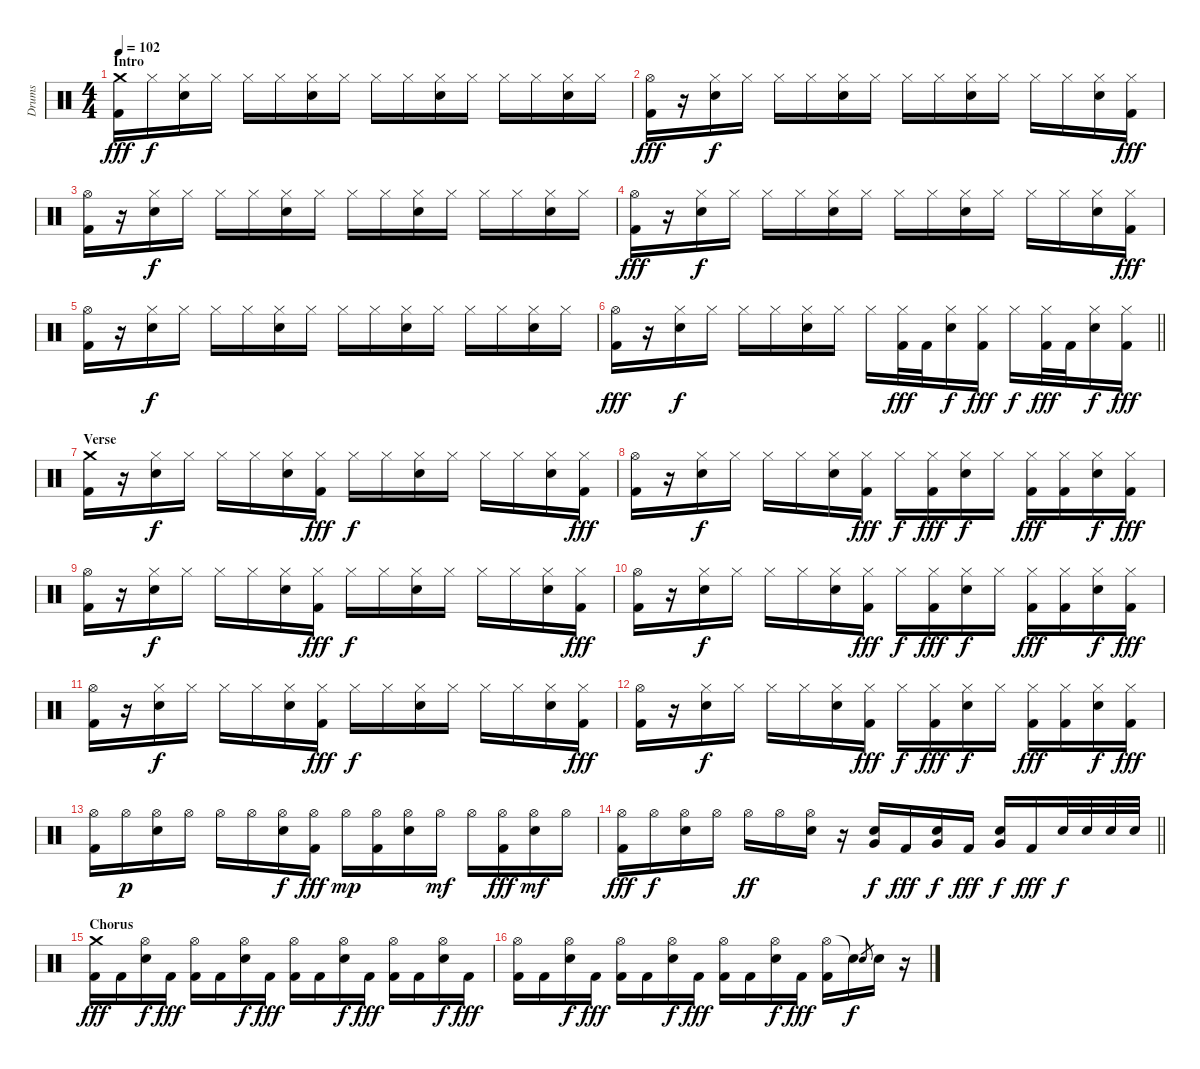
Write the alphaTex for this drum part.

\track ("Drums" "Drums") {instrument percussion}
\staff {score}
\articulation defaults
\ts (4 4)
\section ("" "Intro")
\tempo 102
\clef neutral
\ks c
("Crash medium (hit)" "Kick (hit) 2").16{dy fff} "Hi-Hat (closed)".16{dy f} ("Hi-Hat (closed)" "Snare (hit) 2").16 "Hi-Hat (closed)".16 "Hi-Hat (closed)".16 "Hi-Hat (closed)".16 ("Hi-Hat (closed)" "Snare (hit) 2").16 "Hi-Hat (closed)".16 "Hi-Hat (closed)".16 "Hi-Hat (closed)".16 ("Hi-Hat (closed)" "Snare (hit) 2").16 "Hi-Hat (closed)".16 "Hi-Hat (closed)".16 "Hi-Hat (closed)".16 ("Hi-Hat (closed)" "Snare (hit) 2").16 "Hi-Hat (closed)".16 |
("Hi-Hat (open)" "Kick (hit) 2").16{dy fff} r.16 ("Hi-Hat (closed)" "Snare (hit) 2").16{dy f} "Hi-Hat (closed)".16 "Hi-Hat (closed)".16 "Hi-Hat (closed)".16 ("Hi-Hat (closed)" "Snare (hit) 2").16 "Hi-Hat (closed)".16 "Hi-Hat (closed)".16 "Hi-Hat (closed)".16 ("Hi-Hat (closed)" "Snare (hit) 2").16 "Hi-Hat (closed)".16 "Hi-Hat (closed)".16 "Hi-Hat (closed)".16 ("Hi-Hat (closed)" "Snare (hit) 2").16 ("Hi-Hat (closed)" "Kick (hit) 2").16{dy fff} |
("Hi-Hat (open)" "Kick (hit) 2").16 r.16 ("Hi-Hat (closed)" "Snare (hit) 2").16{dy f} "Hi-Hat (closed)".16 "Hi-Hat (closed)".16 "Hi-Hat (closed)".16 ("Hi-Hat (closed)" "Snare (hit) 2").16 "Hi-Hat (closed)".16 "Hi-Hat (closed)".16 "Hi-Hat (closed)".16 ("Hi-Hat (closed)" "Snare (hit) 2").16 "Hi-Hat (closed)".16 "Hi-Hat (closed)".16 "Hi-Hat (closed)".16 ("Hi-Hat (closed)" "Snare (hit) 2").16 "Hi-Hat (closed)".16 |
("Hi-Hat (open)" "Kick (hit) 2").16{dy fff} r.16 ("Hi-Hat (closed)" "Snare (hit) 2").16{dy f} "Hi-Hat (closed)".16 "Hi-Hat (closed)".16 "Hi-Hat (closed)".16 ("Hi-Hat (closed)" "Snare (hit) 2").16 "Hi-Hat (closed)".16 "Hi-Hat (closed)".16 "Hi-Hat (closed)".16 ("Hi-Hat (closed)" "Snare (hit) 2").16 "Hi-Hat (closed)".16 "Hi-Hat (closed)".16 "Hi-Hat (closed)".16 ("Hi-Hat (closed)" "Snare (hit) 2").16 ("Hi-Hat (closed)" "Kick (hit) 2").16{dy fff} |
("Hi-Hat (open)" "Kick (hit) 2").16 r.16 ("Hi-Hat (closed)" "Snare (hit) 2").16{dy f} "Hi-Hat (closed)".16 "Hi-Hat (closed)".16 "Hi-Hat (closed)".16 ("Hi-Hat (closed)" "Snare (hit) 2").16 "Hi-Hat (closed)".16 "Hi-Hat (closed)".16 "Hi-Hat (closed)".16 ("Hi-Hat (closed)" "Snare (hit) 2").16 "Hi-Hat (closed)".16 "Hi-Hat (closed)".16 "Hi-Hat (closed)".16 ("Hi-Hat (closed)" "Snare (hit) 2").16 "Hi-Hat (closed)".16 |
\barLineRight lightlight
("Hi-Hat (open)" "Kick (hit) 2").16{dy fff} r.16 ("Hi-Hat (closed)" "Snare (hit) 2").16{dy f} "Hi-Hat (closed)".16 "Hi-Hat (closed)".16 "Hi-Hat (closed)".16 ("Hi-Hat (closed)" "Snare (hit) 2").16 "Hi-Hat (closed)".16 "Hi-Hat (closed)".16 ("Hi-Hat (closed)" "Kick (hit) 2").32{dy fff} "Kick (hit) 2".32 ("Hi-Hat (closed)" "Snare (hit) 2").16{dy f} ("Hi-Hat (closed)" "Kick (hit) 2").16{dy fff} "Hi-Hat (closed)".16{dy f} ("Hi-Hat (closed)" "Kick (hit) 2").32{dy fff} "Kick (hit) 2".32 ("Hi-Hat (closed)" "Snare (hit) 2").16{dy f} ("Hi-Hat (closed)" "Kick (hit) 2").16{dy fff} |
\section ("" "Verse")
("Crash medium (hit)" "Kick (hit) 2").16 r.16 ("Hi-Hat (closed)" "Snare (hit) 2").16{dy f} "Hi-Hat (closed)".16 "Hi-Hat (closed)".16 "Hi-Hat (closed)".16 ("Hi-Hat (closed)" "Snare (hit) 2").16 ("Hi-Hat (closed)" "Kick (hit) 2").16{dy fff} "Hi-Hat (closed)".16{dy f} "Hi-Hat (closed)".16 ("Hi-Hat (closed)" "Snare (hit) 2").16 "Hi-Hat (closed)".16 "Hi-Hat (closed)".16 "Hi-Hat (closed)".16 ("Hi-Hat (closed)" "Snare (hit) 2").16 ("Hi-Hat (closed)" "Kick (hit) 2").16{dy fff} |
("Hi-Hat (open)" "Kick (hit) 2").16 r.16 ("Hi-Hat (closed)" "Snare (hit) 2").16{dy f} "Hi-Hat (closed)".16 "Hi-Hat (closed)".16 "Hi-Hat (closed)".16 ("Hi-Hat (closed)" "Snare (hit) 2").16 ("Hi-Hat (closed)" "Kick (hit) 2").16{dy fff} "Hi-Hat (closed)".16{dy f} ("Hi-Hat (closed)" "Kick (hit) 2").16{dy fff} ("Hi-Hat (closed)" "Snare (hit) 2").16{dy f} "Hi-Hat (closed)".16 ("Hi-Hat (closed)" "Kick (hit) 2").16{dy fff} ("Hi-Hat (closed)" "Kick (hit) 2").16 ("Hi-Hat (closed)" "Snare (hit) 2").16{dy f} ("Hi-Hat (closed)" "Kick (hit) 2").16{dy fff} |
("Hi-Hat (open)" "Kick (hit) 2").16 r.16 ("Hi-Hat (closed)" "Snare (hit) 2").16{dy f} "Hi-Hat (closed)".16 "Hi-Hat (closed)".16 "Hi-Hat (closed)".16 ("Hi-Hat (closed)" "Snare (hit) 2").16 ("Hi-Hat (closed)" "Kick (hit) 2").16{dy fff} "Hi-Hat (closed)".16{dy f} "Hi-Hat (closed)".16 ("Hi-Hat (closed)" "Snare (hit) 2").16 "Hi-Hat (closed)".16 "Hi-Hat (closed)".16 "Hi-Hat (closed)".16 ("Hi-Hat (closed)" "Snare (hit) 2").16 ("Hi-Hat (closed)" "Kick (hit) 2").16{dy fff} |
("Hi-Hat (open)" "Kick (hit) 2").16 r.16 ("Hi-Hat (closed)" "Snare (hit) 2").16{dy f} "Hi-Hat (closed)".16 "Hi-Hat (closed)".16 "Hi-Hat (closed)".16 ("Hi-Hat (closed)" "Snare (hit) 2").16 ("Hi-Hat (closed)" "Kick (hit) 2").16{dy fff} "Hi-Hat (closed)".16{dy f} ("Hi-Hat (closed)" "Kick (hit) 2").16{dy fff} ("Hi-Hat (closed)" "Snare (hit) 2").16{dy f} "Hi-Hat (closed)".16 ("Hi-Hat (closed)" "Kick (hit) 2").16{dy fff} ("Hi-Hat (closed)" "Kick (hit) 2").16 ("Hi-Hat (closed)" "Snare (hit) 2").16{dy f} ("Hi-Hat (closed)" "Kick (hit) 2").16{dy fff} |
("Hi-Hat (open)" "Kick (hit) 2").16 r.16 ("Hi-Hat (closed)" "Snare (hit) 2").16{dy f} "Hi-Hat (closed)".16 "Hi-Hat (closed)".16 "Hi-Hat (closed)".16 ("Hi-Hat (closed)" "Snare (hit) 2").16 ("Hi-Hat (closed)" "Kick (hit) 2").16{dy fff} "Hi-Hat (closed)".16{dy f} "Hi-Hat (closed)".16 ("Hi-Hat (closed)" "Snare (hit) 2").16 "Hi-Hat (closed)".16 "Hi-Hat (closed)".16 "Hi-Hat (closed)".16 ("Hi-Hat (closed)" "Snare (hit) 2").16 ("Hi-Hat (closed)" "Kick (hit) 2").16{dy fff} |
("Hi-Hat (open)" "Kick (hit) 2").16 r.16 ("Hi-Hat (closed)" "Snare (hit) 2").16{dy f} "Hi-Hat (closed)".16 "Hi-Hat (closed)".16 "Hi-Hat (closed)".16 ("Hi-Hat (closed)" "Snare (hit) 2").16 ("Hi-Hat (closed)" "Kick (hit) 2").16{dy fff} "Hi-Hat (closed)".16{dy f} ("Hi-Hat (closed)" "Kick (hit) 2").16{dy fff} ("Hi-Hat (closed)" "Snare (hit) 2").16{dy f} "Hi-Hat (closed)".16 ("Hi-Hat (closed)" "Kick (hit) 2").16{dy fff} ("Hi-Hat (closed)" "Kick (hit) 2").16 ("Hi-Hat (closed)" "Snare (hit) 2").16{dy f} ("Hi-Hat (closed)" "Kick (hit) 2").16{dy fff} |
("Hi-Hat (open)" "Kick (hit) 2").16 "Hi-Hat (open)".16{dy p} ("Hi-Hat (open)" "Snare (hit) 2").16 "Hi-Hat (open)".16 "Hi-Hat (open)".16 "Hi-Hat (open)".16 ("Hi-Hat (open)" "Snare (hit) 2").16{dy f} ("Hi-Hat (open)" "Kick (hit) 2").16{dy fff} "Hi-Hat (open)".16{dy mp} ("Hi-Hat (open)" "Kick (hit) 2").16 ("Hi-Hat (open)" "Snare (hit) 2").16 "Hi-Hat (open)".16{dy mf} "Hi-Hat (open)".16 ("Hi-Hat (open)" "Kick (hit) 2").16{dy fff} ("Hi-Hat (open)" "Snare (hit) 2").16{dy mf} "Hi-Hat (open)".16 |
\barLineRight lightlight
("Hi-Hat (open)" "Kick (hit) 2").16{dy fff} "Hi-Hat (open)".16{dy f} ("Hi-Hat (open)" "Snare (hit) 2").16 "Hi-Hat (open)".16 "Hi-Hat (open)".16{dy ff} "Hi-Hat (open)".16 ("Hi-Hat (open)" "Snare (hit) 2").16 r.16 ("Snare (hit) 2" "Very Low Tom (hit)").16{dy f} "Kick (hit) 2".16{dy fff} ("Snare (hit) 2" "Very Low Tom (hit)").16{dy f} "Kick (hit) 2".16{dy fff} ("Snare (hit) 2" "Very Low Tom (hit)").16{dy f} "Kick (hit) 2".16{dy fff} "Snare (hit) 2".32{dy f} "Snare (hit) 2".32 "Snare (hit) 2".32 "Snare (hit) 2".32 |
\section ("" "Chorus")
("Crash medium (hit)" "Kick (hit) 2").16{dy fff} "Kick (hit) 2".16 ("Hi-Hat (open)" "Snare (hit) 2").16{dy f} "Kick (hit) 2".16{dy fff} ("Hi-Hat (open)" "Kick (hit) 2").16 "Kick (hit) 2".16 ("Hi-Hat (open)" "Snare (hit) 2").16{dy f} "Kick (hit) 2".16{dy fff} ("Hi-Hat (open)" "Kick (hit) 2").16 "Kick (hit) 2".16 ("Hi-Hat (open)" "Snare (hit) 2").16{dy f} "Kick (hit) 2".16{dy fff} ("Hi-Hat (open)" "Kick (hit) 2").16 "Kick (hit) 2".16 ("Hi-Hat (open)" "Snare (hit) 2").16{dy f} "Kick (hit) 2".16{dy fff} |
("Hi-Hat (open)" "Kick (hit) 2").16 "Kick (hit) 2".16 ("Hi-Hat (open)" "Snare (hit) 2").16{dy f} "Kick (hit) 2".16{dy fff} ("Hi-Hat (open)" "Kick (hit) 2").16 "Kick (hit) 2".16 ("Hi-Hat (open)" "Snare (hit) 2").16{dy f} "Kick (hit) 2".16{dy fff} ("Hi-Hat (open)" "Kick (hit) 2").16 "Kick (hit) 2".16 ("Hi-Hat (open)" "Snare (hit) 2").16{dy f} "Kick (hit) 2".16{dy fff} ("Hi-Hat (open)" "Kick (hit) 2").16 "Snare (hit)"{t}.16{dy f} "Snare (hit) 2".8{gr} "Snare (hit) 2".16 r.16
